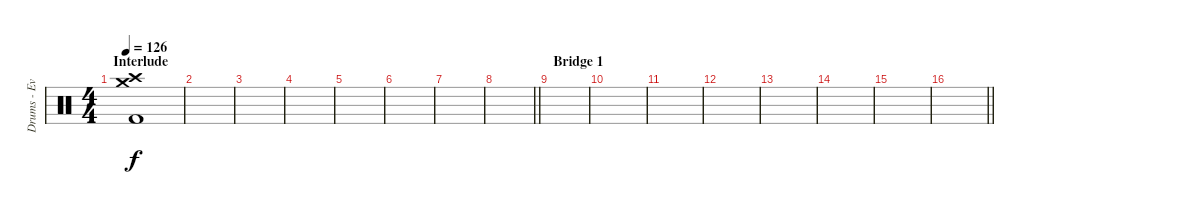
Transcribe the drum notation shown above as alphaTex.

\track ("Drums - Evans" "Drums - Ev") {instrument percussion}
\staff {score}
\articulation defaults
\ts (4 4)
\section ("" "Interlude")
\tempo 126
\clef neutral
\ks c
("Crash high (hit)" "Crash medium (hit)" "Kick (hit) 2").1{dy f} |
|
|
|
|
|
|
\barLineRight lightlight
|
\section ("" "Bridge 1")
|
|
|
|
|
|
|
\barLineRight lightlight
